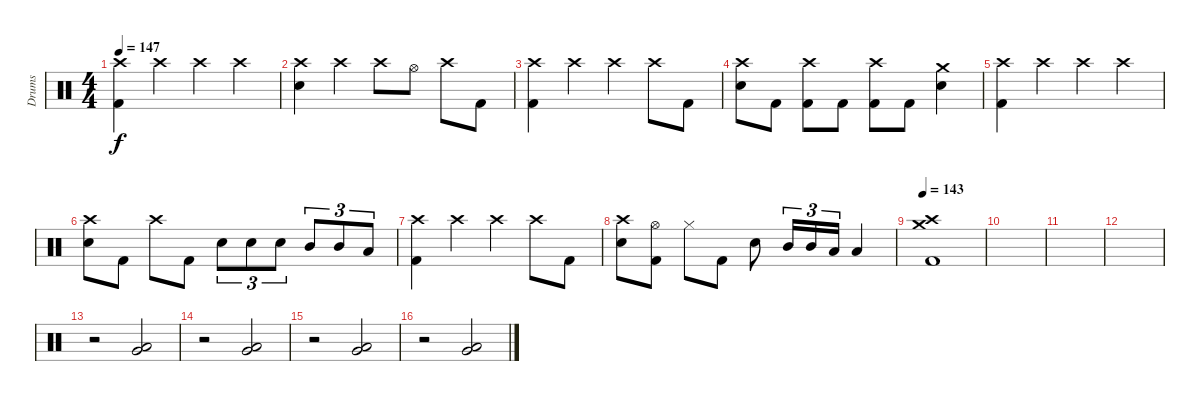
\track ("Drums" "Drums") {instrument percussion}
\staff
\articulation defaults
\ts (4 4)
\tempo 147
\clef neutral
\ks c
("Crash high (hit)" "Kick (hit) 2").4{dy f} "Crash high (hit)".4 "Crash high (hit)".4 "Crash high (hit)".4 |
("Crash high (hit)" "Electric Snare (hit)").4 "Crash high (hit)".4 "Crash high (hit)".8 "Hi-Hat (open)".8 "Crash high (hit)".8 "Kick (hit) 2".8 |
("Crash high (hit)" "Kick (hit) 2").4 "Crash high (hit)".4 "Crash high (hit)".4 "Crash high (hit)".8 "Kick (hit) 2".8 |
("Crash high (hit)" "Electric Snare (hit)").8 "Kick (hit) 2".8 ("Crash high (hit)" "Kick (hit) 2").8 "Kick (hit) 2".8 ("Crash high (hit)" "Kick (hit) 2").8 "Kick (hit) 2".8 ("Crash medium (hit)" "Electric Snare (hit)").4 |
("Crash high (hit)" "Kick (hit) 2").4 "Crash high (hit)".4 "Crash high (hit)".4 "Crash high (hit)".4 |
("Crash high (hit)" "Electric Snare (hit)").8 "Kick (hit) 2".8 "Crash high (hit)".8 "Kick (hit) 2".8 "Electric Snare (hit)".8{tu (3 2)} "Electric Snare (hit)".8{tu (3 2)} "Electric Snare (hit)".8{tu (3 2)} "Mid Tom (hit)".8{tu (3 2)} "Mid Tom (hit)".8{tu (3 2)} "Low Tom (hit)".8{tu (3 2)} |
("Crash high (hit)" "Kick (hit) 2").4 "Crash high (hit)".4 "Crash high (hit)".4 "Crash high (hit)".8 "Kick (hit) 2".8 |
("Crash high (hit)" "Electric Snare (hit)").8 ("Hi-Hat (open)" "Kick (hit) 2").8 "Hi-Hat (closed)".8 "Kick (hit) 2".8 "Electric Snare (hit)".8 "Mid Tom (hit)".16{tu (3 2)} "Mid Tom (hit)".16{tu (3 2)} "Low Tom (hit)".16{tu (3 2)} "Low Tom (hit)".4 |
\tempo 143
("Crash medium (hit)" "Crash high (hit)" "Kick (hit) 2").1 |
|
|
|
r.2 ("Very Low Tom (hit)" "Low Floor Tom (hit)").2 |
r.2 ("Very Low Tom (hit)" "Low Floor Tom (hit)").2 |
r.2 ("Very Low Tom (hit)" "Low Floor Tom (hit)").2 |
r.2 ("Very Low Tom (hit)" "Low Floor Tom (hit)").2
